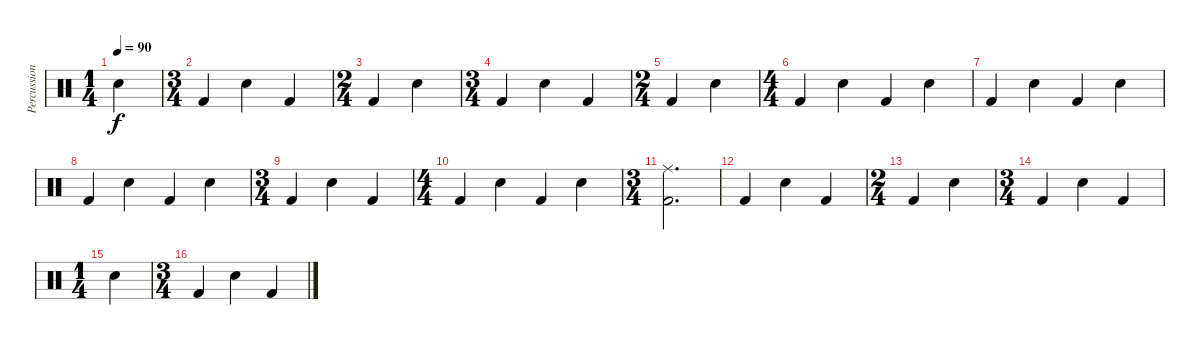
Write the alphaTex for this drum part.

\track ("Percussion" "Percussion") {instrument percussion}
\staff {score}
\articulation defaults
\ts (1 4)
\tempo 90
\clef neutral
\ks c "Snare (hit) 2".4{dy f}
|
\ts (3 4)
"Kick (hit) 2".4 "Snare (hit) 2".4 "Kick (hit) 2".4 |
\ts (2 4)
"Kick (hit) 2".4 "Snare (hit) 2".4 |
\ts (3 4)
"Kick (hit) 2".4 "Snare (hit) 2".4 "Kick (hit) 2".4 |
\ts (2 4)
"Kick (hit) 2".4 "Snare (hit) 2".4 |
\ts (4 4)
"Kick (hit) 2".4 "Snare (hit) 2".4 "Kick (hit) 2".4 "Snare (hit) 2".4 |
"Kick (hit) 2".4 "Snare (hit) 2".4 "Kick (hit) 2".4 "Snare (hit) 2".4 |
"Kick (hit) 2".4 "Snare (hit) 2".4 "Kick (hit) 2".4 "Snare (hit) 2".4 |
\ts (3 4)
"Kick (hit) 2".4 "Snare (hit) 2".4 "Kick (hit) 2".4 |
\ts (4 4)
"Kick (hit) 2".4 "Snare (hit) 2".4 "Kick (hit) 2".4 "Snare (hit) 2".4 |
\ts (3 4)
("Ride (middle)" "Kick (hit) 2").2{d} |
"Kick (hit) 2".4 "Snare (hit) 2".4 "Kick (hit) 2".4 |
\ts (2 4)
"Kick (hit) 2".4 "Snare (hit) 2".4 |
\ts (3 4)
"Kick (hit) 2".4 "Snare (hit) 2".4 "Kick (hit) 2".4 |
\ts (1 4)
"Snare (hit) 2".4 |
\ts (3 4)
"Kick (hit) 2".4 "Snare (hit) 2".4 "Kick (hit) 2".4
